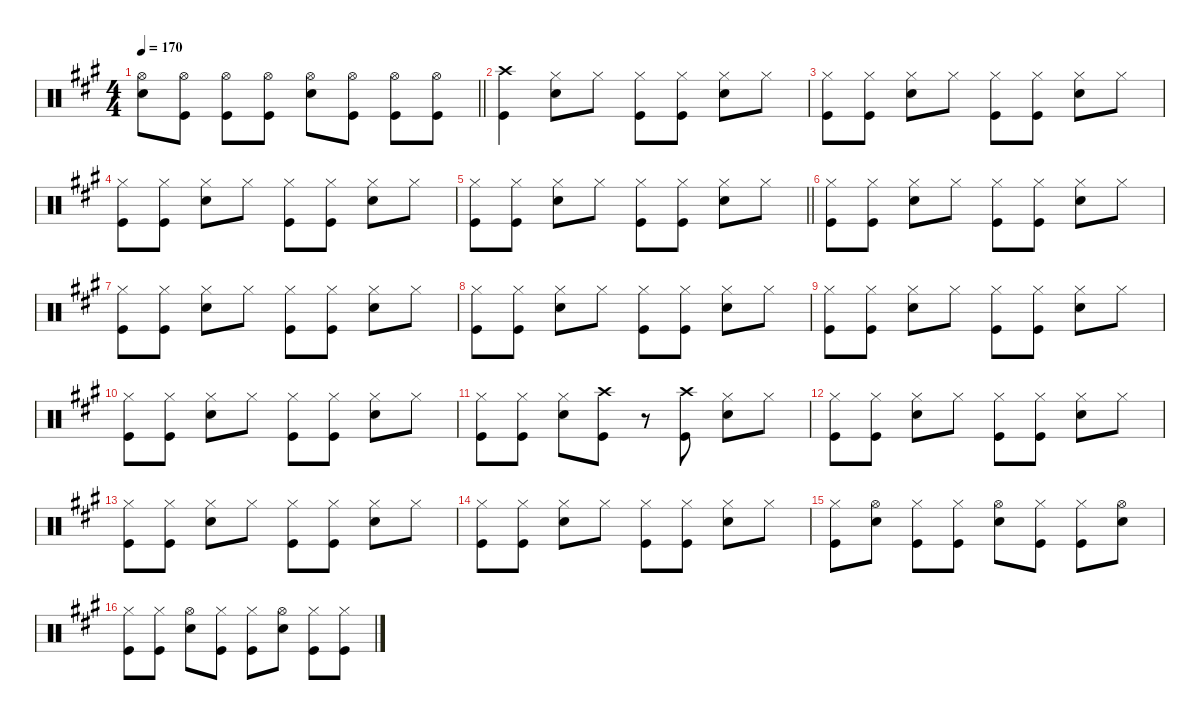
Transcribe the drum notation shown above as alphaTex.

\defaultSystemsLayout 4
\hideDynamics
\bracketExtendMode nobrackets
\singleTrackTrackNamePolicy hidden
\multiTrackTrackNamePolicy hidden
\firstSystemTrackNameMode fullname
\firstSystemTrackNameOrientation horizontal
\otherSystemsTrackNameOrientation horizontal
\track ("Percussion" "drm.") {defaultSystemsLayout 4 instrument percussion}
\staff {score}
\articulation defaults
\ts (4 4)
\tempo 170
\clef neutral
\barLineRight lightlight
\ks a
("Hi-Hat (open)"{acc forcenatural} "Snare (hit) 2"{acc forcenatural}).8{dy f beam Down} ("Hi-Hat (open)"{acc forcenatural} "Kick (hit)"{acc forcenatural}).8{beam Down} ("Hi-Hat (open)"{acc forcenatural} "Kick (hit)"{acc forcenatural}).8{beam Down} ("Hi-Hat (open)"{acc forcenatural} "Kick (hit)"{acc forcenatural}).8{beam Down} ("Hi-Hat (open)"{acc forcenatural} "Snare (hit) 2"{acc forcenatural}).8{beam Down} ("Hi-Hat (open)"{acc forcenatural} "Kick (hit)"{acc forcenatural}).8{beam Down} ("Hi-Hat (open)"{acc forcenatural} "Kick (hit)"{acc forcenatural}).8{beam Down} ("Hi-Hat (open)"{acc forcenatural} "Kick (hit)"{acc forcenatural}).8{beam Down} |
("Crash high (hit)"{acc forcenatural} "Kick (hit)"{acc forcenatural}).4{beam Down} ("Hi-Hat (closed)"{acc forcenatural} "Snare (hit) 2"{acc forcenatural}).8{beam Down} "Hi-Hat (closed)"{acc forcenatural}.8{beam Down} ("Hi-Hat (closed)"{acc forcenatural} "Kick (hit)"{acc forcenatural}).8{beam Down} ("Hi-Hat (closed)"{acc forcenatural} "Kick (hit)"{acc forcenatural}).8{beam Down} ("Hi-Hat (closed)"{acc forcenatural} "Snare (hit) 2"{acc forcenatural}).8{beam Down} "Hi-Hat (closed)"{acc forcenatural}.8{beam Down} |
("Hi-Hat (closed)"{acc forcenatural} "Kick (hit)"{acc forcenatural}).8{beam Down} ("Hi-Hat (closed)"{acc forcenatural} "Kick (hit)"{acc forcenatural}).8{beam Down} ("Hi-Hat (closed)"{acc forcenatural} "Snare (hit) 2"{acc forcenatural}).8{beam Down} "Hi-Hat (closed)"{acc forcenatural}.8{beam Down} ("Hi-Hat (closed)"{acc forcenatural} "Kick (hit)"{acc forcenatural}).8{beam Down} ("Hi-Hat (closed)"{acc forcenatural} "Kick (hit)"{acc forcenatural}).8{beam Down} ("Hi-Hat (closed)"{acc forcenatural} "Snare (hit) 2"{acc forcenatural}).8{beam Down} "Hi-Hat (closed)"{acc forcenatural}.8{beam Down} |
("Hi-Hat (closed)"{acc forcenatural} "Kick (hit)"{acc forcenatural}).8{beam Down} ("Hi-Hat (closed)"{acc forcenatural} "Kick (hit)"{acc forcenatural}).8{beam Down} ("Hi-Hat (closed)"{acc forcenatural} "Snare (hit) 2"{acc forcenatural}).8{beam Down} "Hi-Hat (closed)"{acc forcenatural}.8{beam Down} ("Hi-Hat (closed)"{acc forcenatural} "Kick (hit)"{acc forcenatural}).8{beam Down} ("Hi-Hat (closed)"{acc forcenatural} "Kick (hit)"{acc forcenatural}).8{beam Down} ("Hi-Hat (closed)"{acc forcenatural} "Snare (hit) 2"{acc forcenatural}).8{beam Down} "Hi-Hat (closed)"{acc forcenatural}.8{beam Down} |
\barLineRight lightlight
("Hi-Hat (closed)"{acc forcenatural} "Kick (hit)"{acc forcenatural}).8{beam Down} ("Hi-Hat (closed)"{acc forcenatural} "Kick (hit)"{acc forcenatural}).8{beam Down} ("Hi-Hat (closed)"{acc forcenatural} "Snare (hit) 2"{acc forcenatural}).8{beam Down} "Hi-Hat (closed)"{acc forcenatural}.8{beam Down} ("Hi-Hat (closed)"{acc forcenatural} "Kick (hit)"{acc forcenatural}).8{beam Down} ("Hi-Hat (closed)"{acc forcenatural} "Kick (hit)"{acc forcenatural}).8{beam Down} ("Hi-Hat (closed)"{acc forcenatural} "Snare (hit) 2"{acc forcenatural}).8{beam Down} "Hi-Hat (closed)"{acc forcenatural}.8{beam Down} |
("Hi-Hat (closed)"{acc forcenatural} "Kick (hit)"{acc forcenatural}).8{beam Down} ("Hi-Hat (closed)"{acc forcenatural} "Kick (hit)"{acc forcenatural}).8{beam Down} ("Hi-Hat (closed)"{acc forcenatural} "Snare (hit) 2"{acc forcenatural}).8{beam Down} "Hi-Hat (closed)"{acc forcenatural}.8{beam Down} ("Hi-Hat (closed)"{acc forcenatural} "Kick (hit)"{acc forcenatural}).8{beam Down} ("Hi-Hat (closed)"{acc forcenatural} "Kick (hit)"{acc forcenatural}).8{beam Down} ("Hi-Hat (closed)"{acc forcenatural} "Snare (hit) 2"{acc forcenatural}).8{beam Down} "Hi-Hat (closed)"{acc forcenatural}.8{beam Down} |
("Hi-Hat (closed)"{acc forcenatural} "Kick (hit)"{acc forcenatural}).8{beam Down} ("Hi-Hat (closed)"{acc forcenatural} "Kick (hit)"{acc forcenatural}).8{beam Down} ("Hi-Hat (closed)"{acc forcenatural} "Snare (hit) 2"{acc forcenatural}).8{beam Down} "Hi-Hat (closed)"{acc forcenatural}.8{beam Down} ("Hi-Hat (closed)"{acc forcenatural} "Kick (hit)"{acc forcenatural}).8{beam Down} ("Hi-Hat (closed)"{acc forcenatural} "Kick (hit)"{acc forcenatural}).8{beam Down} ("Hi-Hat (closed)"{acc forcenatural} "Snare (hit) 2"{acc forcenatural}).8{beam Down} "Hi-Hat (closed)"{acc forcenatural}.8{beam Down} |
("Hi-Hat (closed)"{acc forcenatural} "Kick (hit)"{acc forcenatural}).8{beam Down} ("Hi-Hat (closed)"{acc forcenatural} "Kick (hit)"{acc forcenatural}).8{beam Down} ("Hi-Hat (closed)"{acc forcenatural} "Snare (hit) 2"{acc forcenatural}).8{beam Down} "Hi-Hat (closed)"{acc forcenatural}.8{beam Down} ("Hi-Hat (closed)"{acc forcenatural} "Kick (hit)"{acc forcenatural}).8{beam Down} ("Hi-Hat (closed)"{acc forcenatural} "Kick (hit)"{acc forcenatural}).8{beam Down} ("Hi-Hat (closed)"{acc forcenatural} "Snare (hit) 2"{acc forcenatural}).8{beam Down} "Hi-Hat (closed)"{acc forcenatural}.8{beam Down} |
("Hi-Hat (closed)"{acc forcenatural} "Kick (hit)"{acc forcenatural}).8{beam Down} ("Hi-Hat (closed)"{acc forcenatural} "Kick (hit)"{acc forcenatural}).8{beam Down} ("Hi-Hat (closed)"{acc forcenatural} "Snare (hit) 2"{acc forcenatural}).8{beam Down} "Hi-Hat (closed)"{acc forcenatural}.8{beam Down} ("Hi-Hat (closed)"{acc forcenatural} "Kick (hit)"{acc forcenatural}).8{beam Down} ("Hi-Hat (closed)"{acc forcenatural} "Kick (hit)"{acc forcenatural}).8{beam Down} ("Hi-Hat (closed)"{acc forcenatural} "Snare (hit) 2"{acc forcenatural}).8{beam Down} "Hi-Hat (closed)"{acc forcenatural}.8{beam Down} |
("Hi-Hat (closed)"{acc forcenatural} "Kick (hit)"{acc forcenatural}).8{beam Down} ("Hi-Hat (closed)"{acc forcenatural} "Kick (hit)"{acc forcenatural}).8{beam Down} ("Hi-Hat (closed)"{acc forcenatural} "Snare (hit) 2"{acc forcenatural}).8{beam Down} "Hi-Hat (closed)"{acc forcenatural}.8{beam Down} ("Hi-Hat (closed)"{acc forcenatural} "Kick (hit)"{acc forcenatural}).8{beam Down} ("Hi-Hat (closed)"{acc forcenatural} "Kick (hit)"{acc forcenatural}).8{beam Down} ("Hi-Hat (closed)"{acc forcenatural} "Snare (hit) 2"{acc forcenatural}).8{beam Down} "Hi-Hat (closed)"{acc forcenatural}.8{beam Down} |
("Hi-Hat (closed)"{acc forcenatural} "Kick (hit)"{acc forcenatural}).8{beam Down} ("Hi-Hat (closed)"{acc forcenatural} "Kick (hit)"{acc forcenatural}).8{beam Down} ("Hi-Hat (closed)"{acc forcenatural} "Snare (hit) 2"{acc forcenatural}).8{beam Down} ("Crash high (hit)"{acc forcenatural} "Kick (hit)"{acc forcenatural}).8{beam Down} r.8{beam Down} ("Crash high (hit)"{acc forcenatural} "Kick (hit)"{acc forcenatural}).8{beam Down} ("Hi-Hat (closed)"{acc forcenatural} "Snare (hit) 2"{acc forcenatural}).8{beam Down} "Hi-Hat (closed)"{acc forcenatural}.8{beam Down} |
("Hi-Hat (closed)"{acc forcenatural} "Kick (hit)"{acc forcenatural}).8{beam Down} ("Hi-Hat (closed)"{acc forcenatural} "Kick (hit)"{acc forcenatural}).8{beam Down} ("Hi-Hat (closed)"{acc forcenatural} "Snare (hit) 2"{acc forcenatural}).8{beam Down} "Hi-Hat (closed)"{acc forcenatural}.8{beam Down} ("Hi-Hat (closed)"{acc forcenatural} "Kick (hit)"{acc forcenatural}).8{beam Down} ("Hi-Hat (closed)"{acc forcenatural} "Kick (hit)"{acc forcenatural}).8{beam Down} ("Hi-Hat (closed)"{acc forcenatural} "Snare (hit) 2"{acc forcenatural}).8{beam Down} "Hi-Hat (closed)"{acc forcenatural}.8{beam Down} |
("Hi-Hat (closed)"{acc forcenatural} "Kick (hit)"{acc forcenatural}).8{beam Down} ("Hi-Hat (closed)"{acc forcenatural} "Kick (hit)"{acc forcenatural}).8{beam Down} ("Hi-Hat (closed)"{acc forcenatural} "Snare (hit) 2"{acc forcenatural}).8{beam Down} "Hi-Hat (closed)"{acc forcenatural}.8{beam Down} ("Hi-Hat (closed)"{acc forcenatural} "Kick (hit)"{acc forcenatural}).8{beam Down} ("Hi-Hat (closed)"{acc forcenatural} "Kick (hit)"{acc forcenatural}).8{beam Down} ("Hi-Hat (closed)"{acc forcenatural} "Snare (hit) 2"{acc forcenatural}).8{beam Down} "Hi-Hat (closed)"{acc forcenatural}.8{beam Down} |
("Hi-Hat (closed)"{acc forcenatural} "Kick (hit)"{acc forcenatural}).8{beam Down} ("Hi-Hat (closed)"{acc forcenatural} "Kick (hit)"{acc forcenatural}).8{beam Down} ("Hi-Hat (closed)"{acc forcenatural} "Snare (hit) 2"{acc forcenatural}).8{beam Down} "Hi-Hat (closed)"{acc forcenatural}.8{beam Down} ("Hi-Hat (closed)"{acc forcenatural} "Kick (hit)"{acc forcenatural}).8{beam Down} ("Hi-Hat (closed)"{acc forcenatural} "Kick (hit)"{acc forcenatural}).8{beam Down} ("Hi-Hat (closed)"{acc forcenatural} "Snare (hit) 2"{acc forcenatural}).8{beam Down} "Hi-Hat (closed)"{acc forcenatural}.8{beam Down} |
("Hi-Hat (closed)"{acc forcenatural} "Kick (hit)"{acc forcenatural}).8{beam Down} ("Hi-Hat (open)"{acc forcenatural} "Snare (hit) 2"{acc forcenatural}).8{beam Down} ("Hi-Hat (closed)"{acc forcenatural} "Kick (hit)"{acc forcenatural}).8{beam Down} ("Hi-Hat (closed)"{acc forcenatural} "Kick (hit)"{acc forcenatural}).8{beam Down} ("Hi-Hat (open)"{acc forcenatural} "Snare (hit) 2"{acc forcenatural}).8{beam Down} ("Hi-Hat (closed)"{acc forcenatural} "Kick (hit)"{acc forcenatural}).8{beam Down} ("Hi-Hat (closed)"{acc forcenatural} "Kick (hit)"{acc forcenatural}).8{beam Down} ("Hi-Hat (open)"{acc forcenatural} "Snare (hit) 2"{acc forcenatural}).8{beam Down} |
("Hi-Hat (closed)"{acc forcenatural} "Kick (hit)"{acc forcenatural}).8{beam Down} ("Hi-Hat (closed)"{acc forcenatural} "Kick (hit)"{acc forcenatural}).8{beam Down} ("Hi-Hat (open)"{acc forcenatural} "Snare (hit) 2"{acc forcenatural}).8{beam Down} ("Hi-Hat (closed)"{acc forcenatural} "Kick (hit)"{acc forcenatural}).8{beam Down} ("Hi-Hat (closed)"{acc forcenatural} "Kick (hit)"{acc forcenatural}).8{beam Down} ("Hi-Hat (open)"{acc forcenatural} "Snare (hit) 2"{acc forcenatural}).8{beam Down} ("Hi-Hat (closed)"{acc forcenatural} "Kick (hit)"{acc forcenatural}).8{beam Down} ("Hi-Hat (closed)"{acc forcenatural} "Kick (hit)"{acc forcenatural}).8{beam Down}
